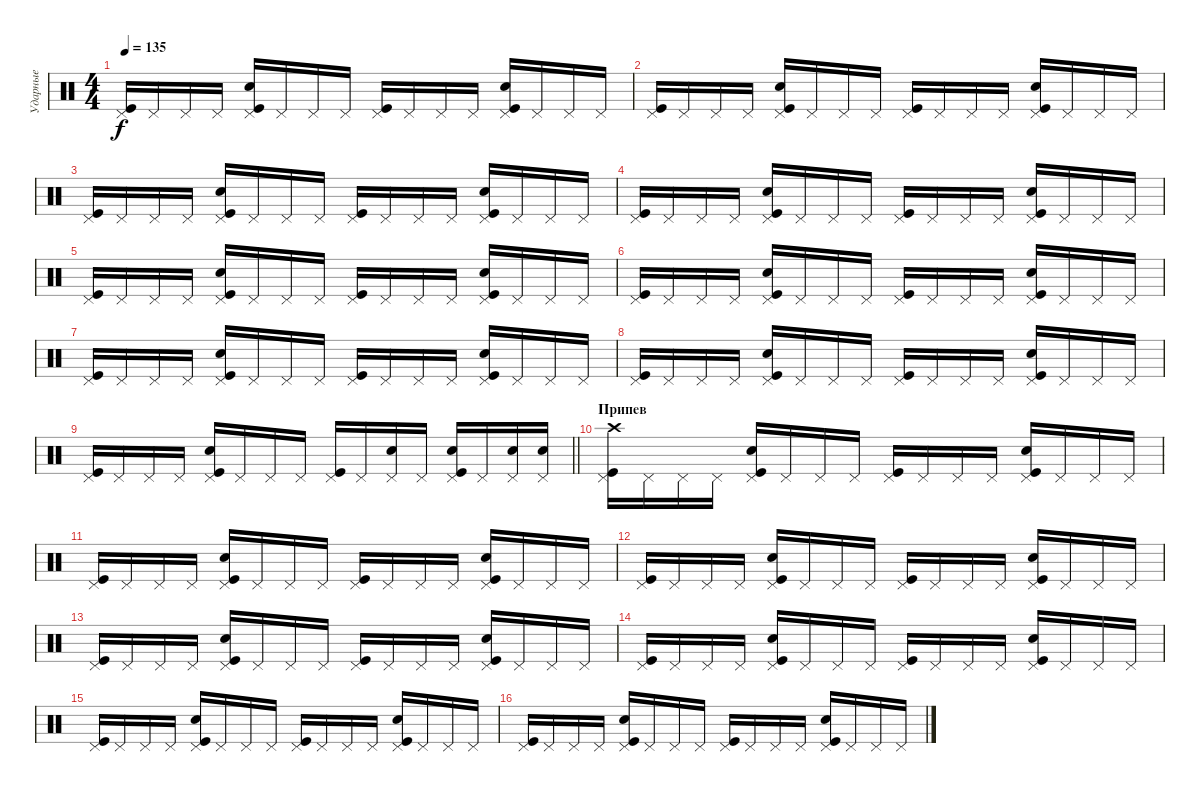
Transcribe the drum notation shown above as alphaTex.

\track ("Ударные" "Ударные") {instrument percussion}
\staff {score}
\articulation defaults
\ts (4 4)
\tempo 135
\clef neutral
\ks c
("Kick (hit)" "Pedal Hi-Hat (hit)").16{dy f} "Pedal Hi-Hat (hit)".16 "Pedal Hi-Hat (hit)".16 "Pedal Hi-Hat (hit)".16 ("Kick (hit)" "Pedal Hi-Hat (hit)" "Snare (hit) 2").16 "Pedal Hi-Hat (hit)".16 "Pedal Hi-Hat (hit)".16 "Pedal Hi-Hat (hit)".16 ("Kick (hit)" "Pedal Hi-Hat (hit)").16 "Pedal Hi-Hat (hit)".16 "Pedal Hi-Hat (hit)".16 "Pedal Hi-Hat (hit)".16 ("Kick (hit)" "Pedal Hi-Hat (hit)" "Snare (hit) 2").16 "Pedal Hi-Hat (hit)".16 "Pedal Hi-Hat (hit)".16 "Pedal Hi-Hat (hit)".16 |
("Kick (hit)" "Pedal Hi-Hat (hit)").16 "Pedal Hi-Hat (hit)".16 "Pedal Hi-Hat (hit)".16 "Pedal Hi-Hat (hit)".16 ("Kick (hit)" "Pedal Hi-Hat (hit)" "Snare (hit) 2").16 "Pedal Hi-Hat (hit)".16 "Pedal Hi-Hat (hit)".16 "Pedal Hi-Hat (hit)".16 ("Kick (hit)" "Pedal Hi-Hat (hit)").16 "Pedal Hi-Hat (hit)".16 "Pedal Hi-Hat (hit)".16 "Pedal Hi-Hat (hit)".16 ("Kick (hit)" "Pedal Hi-Hat (hit)" "Snare (hit) 2").16 "Pedal Hi-Hat (hit)".16 "Pedal Hi-Hat (hit)".16 "Pedal Hi-Hat (hit)".16 |
("Kick (hit)" "Pedal Hi-Hat (hit)").16 "Pedal Hi-Hat (hit)".16 "Pedal Hi-Hat (hit)".16 "Pedal Hi-Hat (hit)".16 ("Kick (hit)" "Pedal Hi-Hat (hit)" "Snare (hit) 2").16 "Pedal Hi-Hat (hit)".16 "Pedal Hi-Hat (hit)".16 "Pedal Hi-Hat (hit)".16 ("Kick (hit)" "Pedal Hi-Hat (hit)").16 "Pedal Hi-Hat (hit)".16 "Pedal Hi-Hat (hit)".16 "Pedal Hi-Hat (hit)".16 ("Kick (hit)" "Pedal Hi-Hat (hit)" "Snare (hit) 2").16 "Pedal Hi-Hat (hit)".16 "Pedal Hi-Hat (hit)".16 "Pedal Hi-Hat (hit)".16 |
("Kick (hit)" "Pedal Hi-Hat (hit)").16 "Pedal Hi-Hat (hit)".16 "Pedal Hi-Hat (hit)".16 "Pedal Hi-Hat (hit)".16 ("Kick (hit)" "Pedal Hi-Hat (hit)" "Snare (hit) 2").16 "Pedal Hi-Hat (hit)".16 "Pedal Hi-Hat (hit)".16 "Pedal Hi-Hat (hit)".16 ("Kick (hit)" "Pedal Hi-Hat (hit)").16 "Pedal Hi-Hat (hit)".16 "Pedal Hi-Hat (hit)".16 "Pedal Hi-Hat (hit)".16 ("Kick (hit)" "Pedal Hi-Hat (hit)" "Snare (hit) 2").16 "Pedal Hi-Hat (hit)".16 "Pedal Hi-Hat (hit)".16 "Pedal Hi-Hat (hit)".16 |
("Kick (hit)" "Pedal Hi-Hat (hit)").16 "Pedal Hi-Hat (hit)".16 "Pedal Hi-Hat (hit)".16 "Pedal Hi-Hat (hit)".16 ("Kick (hit)" "Pedal Hi-Hat (hit)" "Snare (hit) 2").16 "Pedal Hi-Hat (hit)".16 "Pedal Hi-Hat (hit)".16 "Pedal Hi-Hat (hit)".16 ("Kick (hit)" "Pedal Hi-Hat (hit)").16 "Pedal Hi-Hat (hit)".16 "Pedal Hi-Hat (hit)".16 "Pedal Hi-Hat (hit)".16 ("Kick (hit)" "Pedal Hi-Hat (hit)" "Snare (hit) 2").16 "Pedal Hi-Hat (hit)".16 "Pedal Hi-Hat (hit)".16 "Pedal Hi-Hat (hit)".16 |
("Kick (hit)" "Pedal Hi-Hat (hit)").16 "Pedal Hi-Hat (hit)".16 "Pedal Hi-Hat (hit)".16 "Pedal Hi-Hat (hit)".16 ("Kick (hit)" "Pedal Hi-Hat (hit)" "Snare (hit) 2").16 "Pedal Hi-Hat (hit)".16 "Pedal Hi-Hat (hit)".16 "Pedal Hi-Hat (hit)".16 ("Kick (hit)" "Pedal Hi-Hat (hit)").16 "Pedal Hi-Hat (hit)".16 "Pedal Hi-Hat (hit)".16 "Pedal Hi-Hat (hit)".16 ("Kick (hit)" "Pedal Hi-Hat (hit)" "Snare (hit) 2").16 "Pedal Hi-Hat (hit)".16 "Pedal Hi-Hat (hit)".16 "Pedal Hi-Hat (hit)".16 |
("Kick (hit)" "Pedal Hi-Hat (hit)").16 "Pedal Hi-Hat (hit)".16 "Pedal Hi-Hat (hit)".16 "Pedal Hi-Hat (hit)".16 ("Kick (hit)" "Pedal Hi-Hat (hit)" "Snare (hit) 2").16 "Pedal Hi-Hat (hit)".16 "Pedal Hi-Hat (hit)".16 "Pedal Hi-Hat (hit)".16 ("Kick (hit)" "Pedal Hi-Hat (hit)").16 "Pedal Hi-Hat (hit)".16 "Pedal Hi-Hat (hit)".16 "Pedal Hi-Hat (hit)".16 ("Kick (hit)" "Pedal Hi-Hat (hit)" "Snare (hit) 2").16 "Pedal Hi-Hat (hit)".16 "Pedal Hi-Hat (hit)".16 "Pedal Hi-Hat (hit)".16 |
("Kick (hit)" "Pedal Hi-Hat (hit)").16 "Pedal Hi-Hat (hit)".16 "Pedal Hi-Hat (hit)".16 "Pedal Hi-Hat (hit)".16 ("Kick (hit)" "Pedal Hi-Hat (hit)" "Snare (hit) 2").16 "Pedal Hi-Hat (hit)".16 "Pedal Hi-Hat (hit)".16 "Pedal Hi-Hat (hit)".16 ("Kick (hit)" "Pedal Hi-Hat (hit)").16 "Pedal Hi-Hat (hit)".16 "Pedal Hi-Hat (hit)".16 "Pedal Hi-Hat (hit)".16 ("Kick (hit)" "Pedal Hi-Hat (hit)" "Snare (hit) 2").16 "Pedal Hi-Hat (hit)".16 "Pedal Hi-Hat (hit)".16 "Pedal Hi-Hat (hit)".16 |
\barLineRight lightlight
("Kick (hit)" "Pedal Hi-Hat (hit)").16 "Pedal Hi-Hat (hit)".16 "Pedal Hi-Hat (hit)".16 "Pedal Hi-Hat (hit)".16 ("Kick (hit)" "Pedal Hi-Hat (hit)" "Snare (hit) 2").16 "Pedal Hi-Hat (hit)".16 "Pedal Hi-Hat (hit)".16 "Pedal Hi-Hat (hit)".16 ("Kick (hit)" "Pedal Hi-Hat (hit)").16 "Pedal Hi-Hat (hit)".16 ("Pedal Hi-Hat (hit)" "Snare (hit) 2").16 "Pedal Hi-Hat (hit)".16 ("Kick (hit)" "Pedal Hi-Hat (hit)" "Snare (hit) 2").16 "Pedal Hi-Hat (hit)".16 ("Pedal Hi-Hat (hit)" "Snare (hit) 2").16 ("Pedal Hi-Hat (hit)" "Snare (hit) 2").16 |
\section ("" "Припев")
("Kick (hit)" "Pedal Hi-Hat (hit)" "Crash high (hit)").16 "Pedal Hi-Hat (hit)".16 "Pedal Hi-Hat (hit)".16 "Pedal Hi-Hat (hit)".16 ("Kick (hit)" "Pedal Hi-Hat (hit)" "Snare (hit) 2").16 "Pedal Hi-Hat (hit)".16 "Pedal Hi-Hat (hit)".16 "Pedal Hi-Hat (hit)".16 ("Kick (hit)" "Pedal Hi-Hat (hit)").16 "Pedal Hi-Hat (hit)".16 "Pedal Hi-Hat (hit)".16 "Pedal Hi-Hat (hit)".16 ("Kick (hit)" "Pedal Hi-Hat (hit)" "Snare (hit) 2").16 "Pedal Hi-Hat (hit)".16 "Pedal Hi-Hat (hit)".16 "Pedal Hi-Hat (hit)".16 |
("Kick (hit)" "Pedal Hi-Hat (hit)").16 "Pedal Hi-Hat (hit)".16 "Pedal Hi-Hat (hit)".16 "Pedal Hi-Hat (hit)".16 ("Kick (hit)" "Pedal Hi-Hat (hit)" "Snare (hit) 2").16 "Pedal Hi-Hat (hit)".16 "Pedal Hi-Hat (hit)".16 "Pedal Hi-Hat (hit)".16 ("Kick (hit)" "Pedal Hi-Hat (hit)").16 "Pedal Hi-Hat (hit)".16 "Pedal Hi-Hat (hit)".16 "Pedal Hi-Hat (hit)".16 ("Kick (hit)" "Pedal Hi-Hat (hit)" "Snare (hit) 2").16 "Pedal Hi-Hat (hit)".16 "Pedal Hi-Hat (hit)".16 "Pedal Hi-Hat (hit)".16 |
("Kick (hit)" "Pedal Hi-Hat (hit)").16 "Pedal Hi-Hat (hit)".16 "Pedal Hi-Hat (hit)".16 "Pedal Hi-Hat (hit)".16 ("Kick (hit)" "Pedal Hi-Hat (hit)" "Snare (hit) 2").16 "Pedal Hi-Hat (hit)".16 "Pedal Hi-Hat (hit)".16 "Pedal Hi-Hat (hit)".16 ("Kick (hit)" "Pedal Hi-Hat (hit)").16 "Pedal Hi-Hat (hit)".16 "Pedal Hi-Hat (hit)".16 "Pedal Hi-Hat (hit)".16 ("Kick (hit)" "Pedal Hi-Hat (hit)" "Snare (hit) 2").16 "Pedal Hi-Hat (hit)".16 "Pedal Hi-Hat (hit)".16 "Pedal Hi-Hat (hit)".16 |
("Kick (hit)" "Pedal Hi-Hat (hit)").16 "Pedal Hi-Hat (hit)".16 "Pedal Hi-Hat (hit)".16 "Pedal Hi-Hat (hit)".16 ("Kick (hit)" "Pedal Hi-Hat (hit)" "Snare (hit) 2").16 "Pedal Hi-Hat (hit)".16 "Pedal Hi-Hat (hit)".16 "Pedal Hi-Hat (hit)".16 ("Kick (hit)" "Pedal Hi-Hat (hit)").16 "Pedal Hi-Hat (hit)".16 "Pedal Hi-Hat (hit)".16 "Pedal Hi-Hat (hit)".16 ("Kick (hit)" "Pedal Hi-Hat (hit)" "Snare (hit) 2").16 "Pedal Hi-Hat (hit)".16 "Pedal Hi-Hat (hit)".16 "Pedal Hi-Hat (hit)".16 |
("Kick (hit)" "Pedal Hi-Hat (hit)").16 "Pedal Hi-Hat (hit)".16 "Pedal Hi-Hat (hit)".16 "Pedal Hi-Hat (hit)".16 ("Kick (hit)" "Pedal Hi-Hat (hit)" "Snare (hit) 2").16 "Pedal Hi-Hat (hit)".16 "Pedal Hi-Hat (hit)".16 "Pedal Hi-Hat (hit)".16 ("Kick (hit)" "Pedal Hi-Hat (hit)").16 "Pedal Hi-Hat (hit)".16 "Pedal Hi-Hat (hit)".16 "Pedal Hi-Hat (hit)".16 ("Kick (hit)" "Pedal Hi-Hat (hit)" "Snare (hit) 2").16 "Pedal Hi-Hat (hit)".16 "Pedal Hi-Hat (hit)".16 "Pedal Hi-Hat (hit)".16 |
("Kick (hit)" "Pedal Hi-Hat (hit)").16 "Pedal Hi-Hat (hit)".16 "Pedal Hi-Hat (hit)".16 "Pedal Hi-Hat (hit)".16 ("Kick (hit)" "Pedal Hi-Hat (hit)" "Snare (hit) 2").16 "Pedal Hi-Hat (hit)".16 "Pedal Hi-Hat (hit)".16 "Pedal Hi-Hat (hit)".16 ("Kick (hit)" "Pedal Hi-Hat (hit)").16 "Pedal Hi-Hat (hit)".16 "Pedal Hi-Hat (hit)".16 "Pedal Hi-Hat (hit)".16 ("Kick (hit)" "Pedal Hi-Hat (hit)" "Snare (hit) 2").16 "Pedal Hi-Hat (hit)".16 "Pedal Hi-Hat (hit)".16 "Pedal Hi-Hat (hit)".16 |
("Kick (hit)" "Pedal Hi-Hat (hit)").16 "Pedal Hi-Hat (hit)".16 "Pedal Hi-Hat (hit)".16 "Pedal Hi-Hat (hit)".16 ("Kick (hit)" "Pedal Hi-Hat (hit)" "Snare (hit) 2").16 "Pedal Hi-Hat (hit)".16 "Pedal Hi-Hat (hit)".16 "Pedal Hi-Hat (hit)".16 ("Kick (hit)" "Pedal Hi-Hat (hit)").16 "Pedal Hi-Hat (hit)".16 "Pedal Hi-Hat (hit)".16 "Pedal Hi-Hat (hit)".16 ("Kick (hit)" "Pedal Hi-Hat (hit)" "Snare (hit) 2").16 "Pedal Hi-Hat (hit)".16 "Pedal Hi-Hat (hit)".16 "Pedal Hi-Hat (hit)".16
